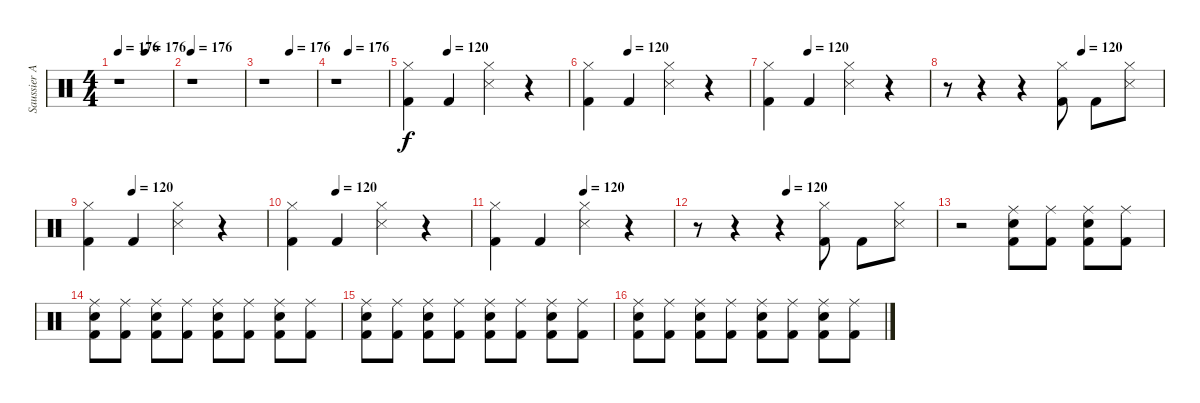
\track ("Saussier Arthur" "Saussier A") {instrument percussion}
\staff {score}
\articulation defaults
\ts (4 4)
\tempo 176
\tempo (176 0.5)
\clef neutral
\ks c
r.1{dy f} |
\tempo 176
r.1 |
\tempo (176 0.5)
r.1 |
\tempo (176 0.25)
r.1 |
\tempo (120 0.25)
("Hi-Hat (closed)" "Kick (hit) 2").4 "Kick (hit) 2".4 ("Hi-Hat (closed)" "Snare (side stick) 3").4 r.4 |
\tempo (120 0.25)
("Hi-Hat (closed)" "Kick (hit) 2").4 "Kick (hit) 2".4 ("Hi-Hat (closed)" "Snare (side stick) 3").4 r.4 |
\tempo (120 0.25)
("Hi-Hat (closed)" "Kick (hit) 2").4 "Kick (hit) 2".4 ("Hi-Hat (closed)" "Snare (side stick) 3").4 r.4 |
\tempo (120 0.625)
r.8 r.4 r.4 ("Hi-Hat (closed)" "Kick (hit) 2").8 "Kick (hit) 2".8 ("Hi-Hat (closed)" "Snare (side stick) 3").8 |
\tempo (120 0.25)
("Hi-Hat (closed)" "Kick (hit) 2").4 "Kick (hit) 2".4 ("Hi-Hat (closed)" "Snare (side stick) 3").4 r.4 |
\tempo (120 0.25)
("Hi-Hat (closed)" "Kick (hit) 2").4 "Kick (hit) 2".4 ("Hi-Hat (closed)" "Snare (side stick) 3").4 r.4 |
\tempo (120 0.5)
("Hi-Hat (closed)" "Kick (hit) 2").4 "Kick (hit) 2".4 ("Hi-Hat (closed)" "Snare (side stick) 3").4 r.4 |
\tempo (120 0.375)
r.8 r.4 r.4 ("Hi-Hat (closed)" "Kick (hit) 2").8 "Kick (hit) 2".8 ("Hi-Hat (closed)" "Snare (side stick) 3").8 |
r.2 ("Ride (middle)" "Electric Snare (hit)" "Kick (hit) 2").8 ("Ride (middle)" "Kick (hit) 2").8 ("Ride (middle)" "Electric Snare (hit)" "Kick (hit) 2").8 ("Ride (middle)" "Kick (hit) 2").8 |
("Ride (middle)" "Electric Snare (hit)" "Kick (hit) 2").8 ("Ride (middle)" "Kick (hit) 2").8 ("Ride (middle)" "Electric Snare (hit)" "Kick (hit) 2").8 ("Ride (middle)" "Kick (hit) 2").8 ("Ride (middle)" "Electric Snare (hit)" "Kick (hit) 2").8 ("Ride (middle)" "Kick (hit) 2").8 ("Ride (middle)" "Electric Snare (hit)" "Kick (hit) 2").8 ("Ride (middle)" "Kick (hit) 2").8 |
("Ride (middle)" "Electric Snare (hit)" "Kick (hit) 2").8 ("Ride (middle)" "Kick (hit) 2").8 ("Ride (middle)" "Electric Snare (hit)" "Kick (hit) 2").8 ("Ride (middle)" "Kick (hit) 2").8 ("Ride (middle)" "Electric Snare (hit)" "Kick (hit) 2").8 ("Ride (middle)" "Kick (hit) 2").8 ("Ride (middle)" "Electric Snare (hit)" "Kick (hit) 2").8 ("Ride (middle)" "Kick (hit) 2").8 |
("Ride (middle)" "Electric Snare (hit)" "Kick (hit) 2").8 ("Ride (middle)" "Kick (hit) 2").8 ("Ride (middle)" "Electric Snare (hit)" "Kick (hit) 2").8 ("Ride (middle)" "Kick (hit) 2").8 ("Ride (middle)" "Electric Snare (hit)" "Kick (hit) 2").8 ("Ride (middle)" "Kick (hit) 2").8 ("Ride (middle)" "Electric Snare (hit)" "Kick (hit) 2").8 ("Ride (middle)" "Kick (hit) 2").8
